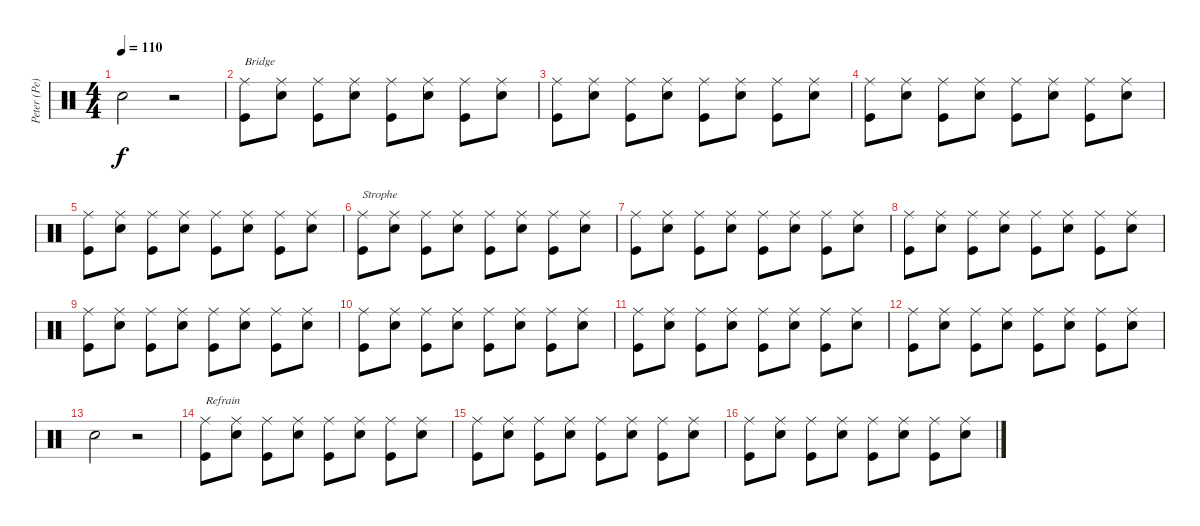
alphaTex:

\track ("Peter (Pe) Schorowsky" "Peter (Pe)") {instrument percussion}
\staff {score}
\articulation defaults
\ts (4 4)
\tempo 110
\clef neutral
\ks c "Snare (hit) 2".2{dy f}
r.2 |
("Ride (middle)" "Kick (hit)").8{txt "Bridge"} ("Ride (middle)" "Snare (hit) 2").8 ("Ride (middle)" "Kick (hit)").8 ("Ride (middle)" "Snare (hit) 2").8 ("Ride (middle)" "Kick (hit)").8 ("Ride (middle)" "Snare (hit) 2").8 ("Ride (middle)" "Kick (hit)").8 ("Ride (middle)" "Snare (hit) 2").8 |
("Ride (middle)" "Kick (hit)").8 ("Ride (middle)" "Snare (hit) 2").8 ("Ride (middle)" "Kick (hit)").8 ("Ride (middle)" "Snare (hit) 2").8 ("Ride (middle)" "Kick (hit)").8 ("Ride (middle)" "Snare (hit) 2").8 ("Ride (middle)" "Kick (hit)").8 ("Ride (middle)" "Snare (hit) 2").8 |
("Ride (middle)" "Kick (hit)").8 ("Ride (middle)" "Snare (hit) 2").8 ("Ride (middle)" "Kick (hit)").8 ("Ride (middle)" "Snare (hit) 2").8 ("Ride (middle)" "Kick (hit)").8 ("Ride (middle)" "Snare (hit) 2").8 ("Ride (middle)" "Kick (hit)").8 ("Ride (middle)" "Snare (hit) 2").8 |
("Ride (middle)" "Kick (hit)").8 ("Ride (middle)" "Snare (hit) 2").8 ("Ride (middle)" "Kick (hit)").8 ("Ride (middle)" "Snare (hit) 2").8 ("Ride (middle)" "Kick (hit)").8 ("Ride (middle)" "Snare (hit) 2").8 ("Ride (middle)" "Kick (hit)").8 ("Ride (middle)" "Snare (hit) 2").8 |
("Ride (middle)" "Kick (hit)").8{txt "Strophe"} ("Ride (middle)" "Snare (hit) 2").8 ("Ride (middle)" "Kick (hit)").8 ("Ride (middle)" "Snare (hit) 2").8 ("Ride (middle)" "Kick (hit)").8 ("Ride (middle)" "Snare (hit) 2").8 ("Ride (middle)" "Kick (hit)").8 ("Ride (middle)" "Snare (hit) 2").8 |
("Ride (middle)" "Kick (hit)").8 ("Ride (middle)" "Snare (hit) 2").8 ("Ride (middle)" "Kick (hit)").8 ("Ride (middle)" "Snare (hit) 2").8 ("Ride (middle)" "Kick (hit)").8 ("Ride (middle)" "Snare (hit) 2").8 ("Ride (middle)" "Kick (hit)").8 ("Ride (middle)" "Snare (hit) 2").8 |
("Ride (middle)" "Kick (hit)").8 ("Ride (middle)" "Snare (hit) 2").8 ("Ride (middle)" "Kick (hit)").8 ("Ride (middle)" "Snare (hit) 2").8 ("Ride (middle)" "Kick (hit)").8 ("Ride (middle)" "Snare (hit) 2").8 ("Ride (middle)" "Kick (hit)").8 ("Ride (middle)" "Snare (hit) 2").8 |
("Ride (middle)" "Kick (hit)").8 ("Ride (middle)" "Snare (hit) 2").8 ("Ride (middle)" "Kick (hit)").8 ("Ride (middle)" "Snare (hit) 2").8 ("Ride (middle)" "Kick (hit)").8 ("Ride (middle)" "Snare (hit) 2").8 ("Ride (middle)" "Kick (hit)").8 ("Ride (middle)" "Snare (hit) 2").8 |
("Ride (middle)" "Kick (hit)").8 ("Ride (middle)" "Snare (hit) 2").8 ("Ride (middle)" "Kick (hit)").8 ("Ride (middle)" "Snare (hit) 2").8 ("Ride (middle)" "Kick (hit)").8 ("Ride (middle)" "Snare (hit) 2").8 ("Ride (middle)" "Kick (hit)").8 ("Ride (middle)" "Snare (hit) 2").8 |
("Ride (middle)" "Kick (hit)").8 ("Ride (middle)" "Snare (hit) 2").8 ("Ride (middle)" "Kick (hit)").8 ("Ride (middle)" "Snare (hit) 2").8 ("Ride (middle)" "Kick (hit)").8 ("Ride (middle)" "Snare (hit) 2").8 ("Ride (middle)" "Kick (hit)").8 ("Ride (middle)" "Snare (hit) 2").8 |
("Ride (middle)" "Kick (hit)").8 ("Ride (middle)" "Snare (hit) 2").8 ("Ride (middle)" "Kick (hit)").8 ("Ride (middle)" "Snare (hit) 2").8 ("Ride (middle)" "Kick (hit)").8 ("Ride (middle)" "Snare (hit) 2").8 ("Ride (middle)" "Kick (hit)").8 ("Ride (middle)" "Snare (hit) 2").8 |
"Snare (hit) 2".2 r.2 |
("Ride (middle)" "Kick (hit)").8{txt "Refrain"} ("Ride (middle)" "Snare (hit) 2").8 ("Ride (middle)" "Kick (hit)").8 ("Ride (middle)" "Snare (hit) 2").8 ("Ride (middle)" "Kick (hit)").8 ("Ride (middle)" "Snare (hit) 2").8 ("Ride (middle)" "Kick (hit)").8 ("Ride (middle)" "Snare (hit) 2").8 |
("Ride (middle)" "Kick (hit)").8 ("Ride (middle)" "Snare (hit) 2").8 ("Ride (middle)" "Kick (hit)").8 ("Ride (middle)" "Snare (hit) 2").8 ("Ride (middle)" "Kick (hit)").8 ("Ride (middle)" "Snare (hit) 2").8 ("Ride (middle)" "Kick (hit)").8 ("Ride (middle)" "Snare (hit) 2").8 |
("Ride (middle)" "Kick (hit)").8 ("Ride (middle)" "Snare (hit) 2").8 ("Ride (middle)" "Kick (hit)").8 ("Ride (middle)" "Snare (hit) 2").8 ("Ride (middle)" "Kick (hit)").8 ("Ride (middle)" "Snare (hit) 2").8 ("Ride (middle)" "Kick (hit)").8 ("Ride (middle)" "Snare (hit) 2").8
